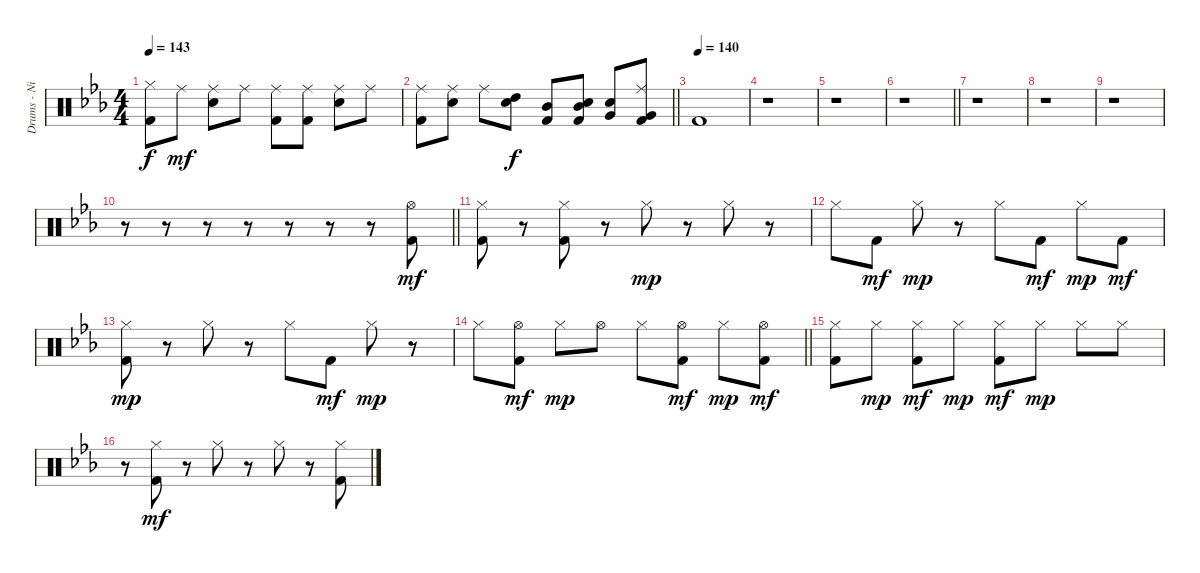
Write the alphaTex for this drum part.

\track ("Drums - Nigel Olsen" "Drums - Ni") {instrument percussion}
\staff {score}
\articulation defaults
\ts (4 4)
\tempo 143
\clef neutral
\ks cminor
("Hi-Hat (closed)" "Kick (hit) 2").8{dy f} "Ride (middle)".8{dy mf} ("Ride (middle)" "Snare (hit) 2").8 "Ride (middle)".8 ("Ride (middle)" "Kick (hit) 2").8 ("Ride (middle)" "Kick (hit) 2").8 ("Ride (middle)" "Snare (hit) 2").8 "Ride (middle)".8 |
\barLineRight lightlight
("Ride (middle)" "Kick (hit) 2").8 ("Ride (middle)" "Snare (hit) 2").8 "Ride (middle)".8 ("High Tom (hit)" "Snare (hit) 2").8{dy f} ("Mid Tom (hit)" "Kick (hit) 2").8 ("Mid Tom (hit)" "Snare (hit) 2" "Kick (hit) 2").8 ("Very Low Tom (hit)" "Snare (hit) 2").8 ("Ride (middle)" "Very Low Tom (hit)" "Kick (hit) 2").8 |
\tempo (140)
"Kick (hit) 2".1 |
r.1 |
r.1 |
\barLineRight lightlight
r.1 |
r.1 |
r.1 |
r.1 |
\barLineRight lightlight
r.8 r.8 r.8 r.8 r.8 r.8 r.8 ("Hi-Hat (open)" "Kick (hit) 2").8{dy mf} |
("Hi-Hat (closed)" "Kick (hit) 2").8 r.8 ("Hi-Hat (closed)" "Kick (hit) 2").8 r.8 "Hi-Hat (closed)".8{dy mp} r.8 "Hi-Hat (closed)".8 r.8 |
"Hi-Hat (closed)".8 "Kick (hit) 2".8{dy mf} "Hi-Hat (closed)".8{dy mp} r.8 "Hi-Hat (closed)".8 "Kick (hit) 2".8{dy mf} "Hi-Hat (closed)".8{dy mp} "Kick (hit) 2".8{dy mf} |
("Hi-Hat (closed)" "Kick (hit) 2").8{dy mp} r.8 "Hi-Hat (closed)".8 r.8 "Hi-Hat (closed)".8 "Kick (hit) 2".8{dy mf} "Hi-Hat (closed)".8{dy mp} r.8 |
\barLineRight lightlight "Hi-Hat (closed)".8
("Hi-Hat (open)" "Kick (hit) 2").8{dy mf} "Hi-Hat (closed)".8{dy mp} "Hi-Hat (open)".8 "Hi-Hat (closed)".8 ("Hi-Hat (open)" "Kick (hit) 2").8{dy mf} "Hi-Hat (closed)".8{dy mp} ("Hi-Hat (open)" "Kick (hit) 2").8{dy mf} |
("Hi-Hat (closed)" "Kick (hit) 2").8 "Hi-Hat (closed)".8{dy mp} ("Hi-Hat (closed)" "Kick (hit) 2").8{dy mf} "Hi-Hat (closed)".8{dy mp} ("Hi-Hat (closed)" "Kick (hit) 2").8{dy mf} "Hi-Hat (closed)".8{dy mp} "Hi-Hat (closed)".8 "Hi-Hat (closed)".8 |
r.8 ("Hi-Hat (closed)" "Kick (hit) 2").8{dy mf} r.8 "Hi-Hat (closed)".8 r.8 "Hi-Hat (closed)".8 r.8 ("Hi-Hat (closed)" "Kick (hit) 2").8
